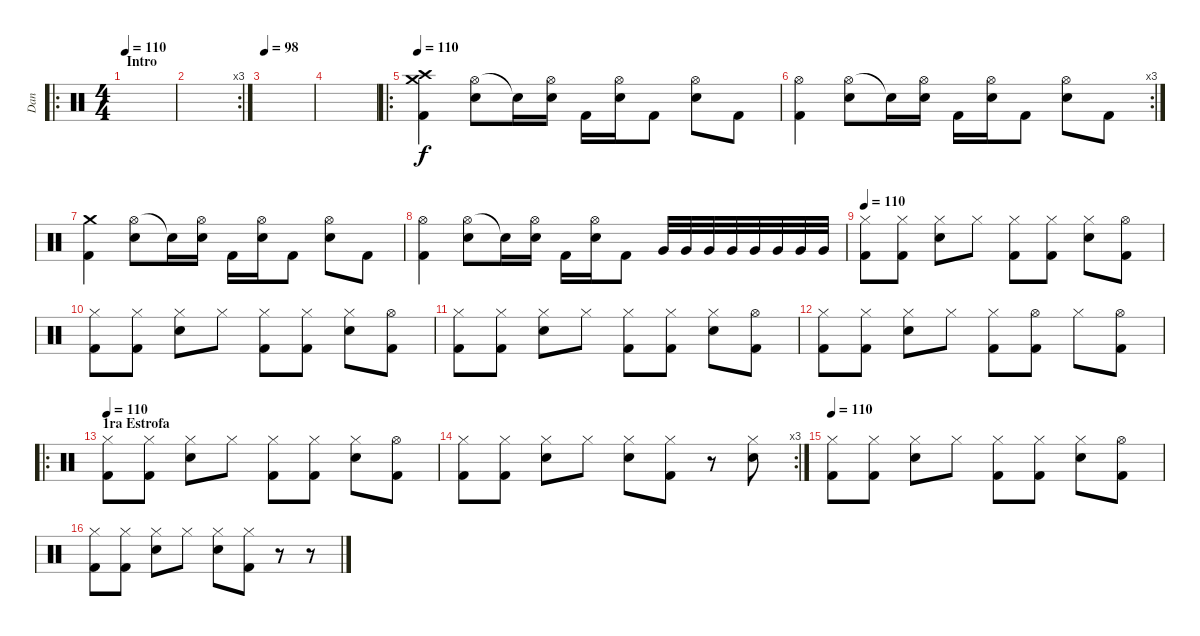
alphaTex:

\track ("Dan" "Dan") {instrument percussion}
\staff {score}
\articulation defaults
\ro
\ts (4 4)
\section ("" "Intro")
\tempo 110
\tempo 98
\tempo 110
\clef neutral
\ks c
|
\rc 3
|
\tempo 98
|
|
\ro
\tempo 110
("Crash medium (hit)" "Crash high (hit)" "Kick (hit) 2").4 ("Hi-Hat (open)" "Snare (hit) 2").8 "Snare (hit) 2"{t}.16 ("Hi-Hat (open)" "Snare (hit) 2").16 "Kick (hit) 2".16 ("Hi-Hat (open)" "Snare (hit) 2").16 "Kick (hit) 2".8 ("Hi-Hat (open)" "Snare (hit) 2").8 "Kick (hit) 2".8 |
\rc 3
("Hi-Hat (open)" "Kick (hit) 2").4 ("Hi-Hat (open)" "Snare (hit) 2").8 "Snare (hit) 2"{t}.16 ("Hi-Hat (open)" "Snare (hit) 2").16 "Kick (hit) 2".16 ("Hi-Hat (open)" "Snare (hit) 2").16 "Kick (hit) 2".8 ("Hi-Hat (open)" "Snare (hit) 2").8 "Kick (hit) 2".8 |
("Crash medium (hit)" "Kick (hit) 2").4 ("Hi-Hat (open)" "Snare (hit) 2").8 "Snare (hit) 2"{t}.16 ("Hi-Hat (open)" "Snare (hit) 2").16 "Kick (hit) 2".16 ("Hi-Hat (open)" "Snare (hit) 2").16 "Kick (hit) 2".8 ("Hi-Hat (open)" "Snare (hit) 2").8 "Kick (hit) 2".8 |
("Hi-Hat (open)" "Kick (hit) 2").4 ("Hi-Hat (open)" "Snare (hit) 2").8 "Snare (hit) 2"{t}.16 ("Hi-Hat (open)" "Snare (hit) 2").16 "Kick (hit) 2".16 ("Hi-Hat (open)" "Snare (hit) 2").16 "Kick (hit) 2".8 "Very Low Tom (hit)".32 "Very Low Tom (hit)".32 "Very Low Tom (hit)".32 "Very Low Tom (hit)".32 "Very Low Tom (hit)".32 "Very Low Tom (hit)".32 "Very Low Tom (hit)".32 "Very Low Tom (hit)".32 |
\tempo 110
("Hi-Hat (closed)" "Kick (hit) 2").8 ("Hi-Hat (closed)" "Kick (hit) 2").8 ("Hi-Hat (closed)" "Snare (hit) 2").8 "Hi-Hat (closed)".8 ("Hi-Hat (closed)" "Kick (hit) 2").8 ("Hi-Hat (closed)" "Kick (hit) 2").8 ("Hi-Hat (closed)" "Snare (hit) 2").8 ("Hi-Hat (open)" "Kick (hit) 2").8 |
("Hi-Hat (closed)" "Kick (hit) 2").8 ("Hi-Hat (closed)" "Kick (hit) 2").8 ("Hi-Hat (closed)" "Snare (hit) 2").8 "Hi-Hat (closed)".8 ("Hi-Hat (closed)" "Kick (hit) 2").8 ("Hi-Hat (closed)" "Kick (hit) 2").8 ("Hi-Hat (closed)" "Snare (hit) 2").8 ("Hi-Hat (open)" "Kick (hit) 2").8 |
("Hi-Hat (closed)" "Kick (hit) 2").8 ("Hi-Hat (closed)" "Kick (hit) 2").8 ("Hi-Hat (closed)" "Snare (hit) 2").8 "Hi-Hat (closed)".8 ("Hi-Hat (closed)" "Kick (hit) 2").8 ("Hi-Hat (closed)" "Kick (hit) 2").8 ("Hi-Hat (closed)" "Snare (hit) 2").8 ("Hi-Hat (open)" "Kick (hit) 2").8 |
("Hi-Hat (closed)" "Kick (hit) 2").8 ("Hi-Hat (closed)" "Kick (hit) 2").8 ("Hi-Hat (closed)" "Snare (hit) 2").8 "Hi-Hat (closed)".8 ("Hi-Hat (closed)" "Kick (hit) 2").8 ("Hi-Hat (open)" "Kick (hit) 2").8 "Hi-Hat (closed)".8 ("Hi-Hat (open)" "Kick (hit) 2").8 |
\ro
\section ("" "1ra Estrofa")
\tempo 110
("Hi-Hat (closed)" "Kick (hit) 2").8 ("Hi-Hat (closed)" "Kick (hit) 2").8 ("Hi-Hat (closed)" "Snare (hit) 2").8 "Hi-Hat (closed)".8 ("Hi-Hat (closed)" "Kick (hit) 2").8 ("Hi-Hat (closed)" "Kick (hit) 2").8 ("Hi-Hat (closed)" "Snare (hit) 2").8 ("Hi-Hat (open)" "Kick (hit) 2").8 |
\rc 3
("Hi-Hat (closed)" "Kick (hit) 2").8 ("Hi-Hat (closed)" "Kick (hit) 2").8 ("Hi-Hat (closed)" "Snare (hit) 2").8 "Hi-Hat (closed)".8 ("Hi-Hat (closed)" "Snare (hit) 2").8 ("Hi-Hat (closed)" "Kick (hit) 2").8 r.8 ("Hi-Hat (closed)" "Snare (hit) 2").8 |
\tempo 110
("Hi-Hat (closed)" "Kick (hit) 2").8 ("Hi-Hat (closed)" "Kick (hit) 2").8 ("Hi-Hat (closed)" "Snare (hit) 2").8 "Hi-Hat (closed)".8 ("Hi-Hat (closed)" "Kick (hit) 2").8 ("Hi-Hat (closed)" "Kick (hit) 2").8 ("Hi-Hat (closed)" "Snare (hit) 2").8 ("Hi-Hat (open)" "Kick (hit) 2").8 |
("Hi-Hat (closed)" "Kick (hit) 2").8 ("Hi-Hat (closed)" "Kick (hit) 2").8 ("Hi-Hat (closed)" "Snare (hit) 2").8 "Hi-Hat (closed)".8 ("Hi-Hat (closed)" "Snare (hit) 2").8 ("Hi-Hat (closed)" "Kick (hit) 2").8 r.8 r.8
